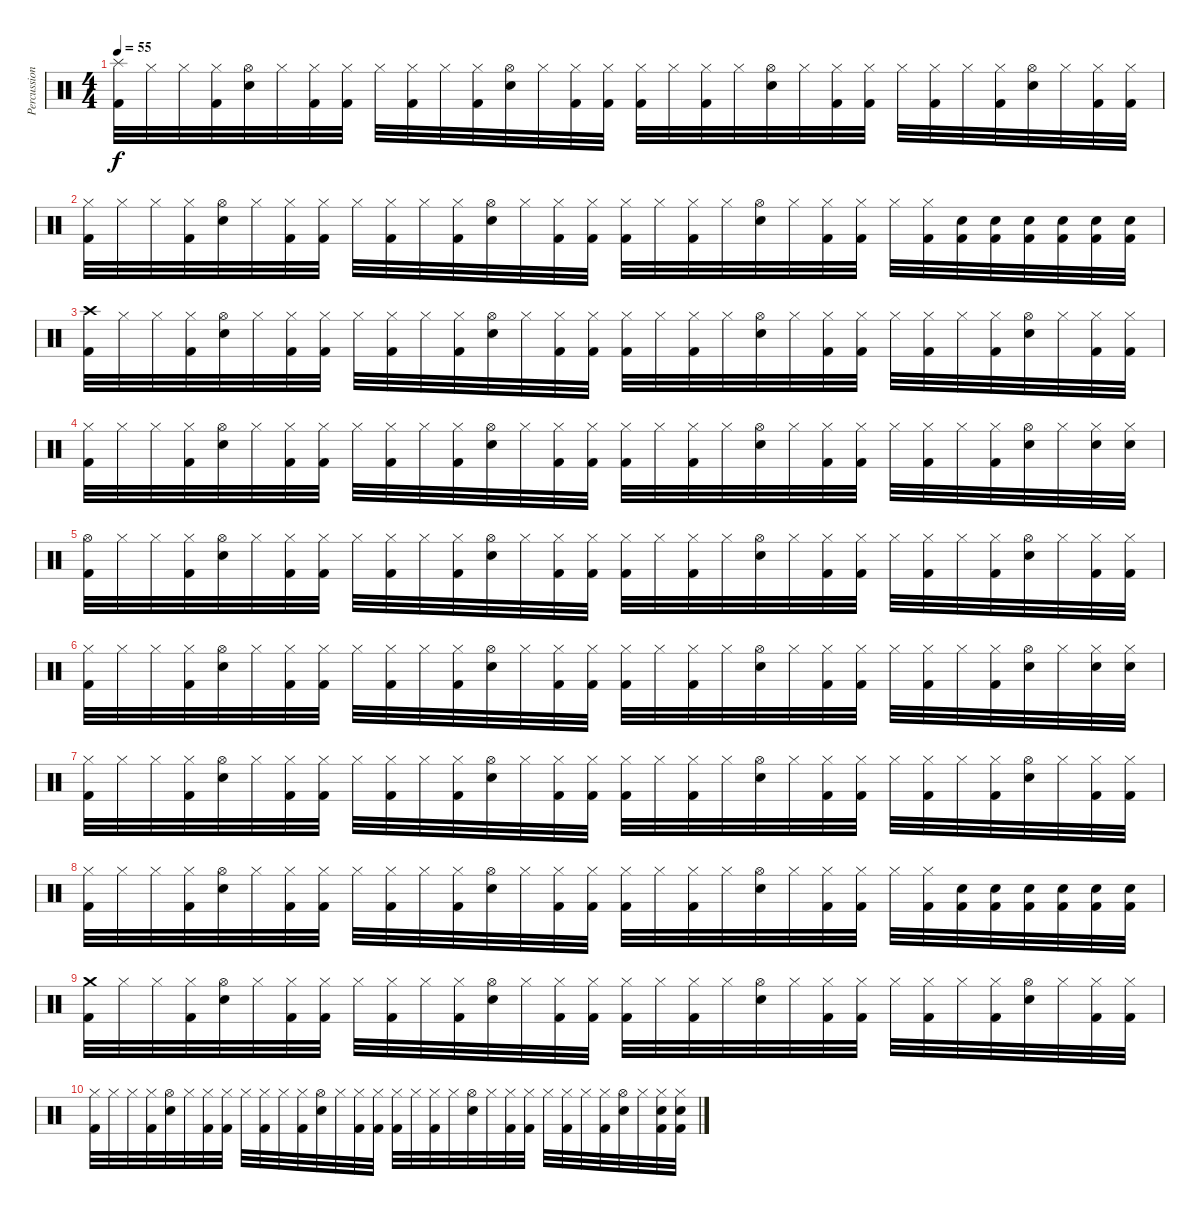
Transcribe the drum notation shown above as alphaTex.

\track ("Percussion" "Percussion") {instrument percussion}
\staff {score}
\articulation defaults
\ts (4 4)
\tempo 55
\clef neutral
\ks c
("Splash (hit)" "Kick (hit) 2").32{dy f} "Hi-Hat (closed)".32 "Hi-Hat (closed)".32 ("Hi-Hat (closed)" "Kick (hit) 2").32 ("Hi-Hat (open)" "Electric Snare (hit)").32 "Hi-Hat (closed)".32 ("Hi-Hat (closed)" "Kick (hit) 2").32 ("Hi-Hat (closed)" "Kick (hit) 2").32 "Hi-Hat (closed)".32 ("Hi-Hat (closed)" "Kick (hit) 2").32 "Hi-Hat (closed)".32 ("Hi-Hat (closed)" "Kick (hit) 2").32 ("Hi-Hat (open)" "Electric Snare (hit)").32 "Hi-Hat (closed)".32 ("Hi-Hat (closed)" "Kick (hit) 2").32 ("Hi-Hat (closed)" "Kick (hit) 2").32 ("Hi-Hat (closed)" "Kick (hit) 2").32 "Hi-Hat (closed)".32 ("Hi-Hat (closed)" "Kick (hit) 2").32 "Hi-Hat (closed)".32 ("Hi-Hat (open)" "Electric Snare (hit)").32 "Hi-Hat (closed)".32 ("Hi-Hat (closed)" "Kick (hit) 2").32 ("Hi-Hat (closed)" "Kick (hit) 2").32 "Hi-Hat (closed)".32 ("Hi-Hat (closed)" "Kick (hit) 2").32 "Hi-Hat (closed)".32 ("Hi-Hat (closed)" "Kick (hit) 2").32 ("Hi-Hat (open)" "Electric Snare (hit)").32 "Hi-Hat (closed)".32 ("Hi-Hat (closed)" "Kick (hit) 2").32 ("Hi-Hat (closed)" "Kick (hit) 2").32 |
("Hi-Hat (closed)" "Kick (hit) 2").32 "Hi-Hat (closed)".32 "Hi-Hat (closed)".32 ("Hi-Hat (closed)" "Kick (hit) 2").32 ("Hi-Hat (open)" "Electric Snare (hit)").32 "Hi-Hat (closed)".32 ("Hi-Hat (closed)" "Kick (hit) 2").32 ("Hi-Hat (closed)" "Kick (hit) 2").32 "Hi-Hat (closed)".32 ("Hi-Hat (closed)" "Kick (hit) 2").32 "Hi-Hat (closed)".32 ("Hi-Hat (closed)" "Kick (hit) 2").32 ("Hi-Hat (open)" "Electric Snare (hit)").32 "Hi-Hat (closed)".32 ("Hi-Hat (closed)" "Kick (hit) 2").32 ("Hi-Hat (closed)" "Kick (hit) 2").32 ("Hi-Hat (closed)" "Kick (hit) 2").32 "Hi-Hat (closed)".32 ("Hi-Hat (closed)" "Kick (hit) 2").32 "Hi-Hat (closed)".32 ("Hi-Hat (open)" "Electric Snare (hit)").32 "Hi-Hat (closed)".32 ("Hi-Hat (closed)" "Kick (hit) 2").32 ("Hi-Hat (closed)" "Kick (hit) 2").32 "Hi-Hat (closed)".32 ("Hi-Hat (closed)" "Kick (hit) 2").32 ("Electric Snare (hit)" "Kick (hit) 2").32 ("Electric Snare (hit)" "Kick (hit) 2").32 ("Electric Snare (hit)" "Kick (hit) 2").32 ("Electric Snare (hit)" "Kick (hit) 2").32 ("Electric Snare (hit)" "Kick (hit) 2").32 ("Electric Snare (hit)" "Kick (hit) 2").32 |
("Crash high (hit)" "Kick (hit) 2").32 "Hi-Hat (closed)".32 "Hi-Hat (closed)".32 ("Hi-Hat (closed)" "Kick (hit) 2").32 ("Hi-Hat (open)" "Electric Snare (hit)").32 "Hi-Hat (closed)".32 ("Hi-Hat (closed)" "Kick (hit) 2").32 ("Hi-Hat (closed)" "Kick (hit) 2").32 "Hi-Hat (closed)".32 ("Hi-Hat (closed)" "Kick (hit) 2").32 "Hi-Hat (closed)".32 ("Hi-Hat (closed)" "Kick (hit) 2").32 ("Hi-Hat (open)" "Electric Snare (hit)").32 "Hi-Hat (closed)".32 ("Hi-Hat (closed)" "Kick (hit) 2").32 ("Hi-Hat (closed)" "Kick (hit) 2").32 ("Hi-Hat (closed)" "Kick (hit) 2").32 "Hi-Hat (closed)".32 ("Hi-Hat (closed)" "Kick (hit) 2").32 "Hi-Hat (closed)".32 ("Hi-Hat (open)" "Electric Snare (hit)").32 "Hi-Hat (closed)".32 ("Hi-Hat (closed)" "Kick (hit) 2").32 ("Hi-Hat (closed)" "Kick (hit) 2").32 "Hi-Hat (closed)".32 ("Hi-Hat (closed)" "Kick (hit) 2").32 "Hi-Hat (closed)".32 ("Hi-Hat (closed)" "Kick (hit) 2").32 ("Hi-Hat (open)" "Electric Snare (hit)").32 "Hi-Hat (closed)".32 ("Hi-Hat (closed)" "Kick (hit) 2").32 ("Hi-Hat (closed)" "Kick (hit) 2").32 |
("Hi-Hat (closed)" "Kick (hit) 2").32 "Hi-Hat (closed)".32 "Hi-Hat (closed)".32 ("Hi-Hat (closed)" "Kick (hit) 2").32 ("Hi-Hat (open)" "Electric Snare (hit)").32 "Hi-Hat (closed)".32 ("Hi-Hat (closed)" "Kick (hit) 2").32 ("Hi-Hat (closed)" "Kick (hit) 2").32 "Hi-Hat (closed)".32 ("Hi-Hat (closed)" "Kick (hit) 2").32 "Hi-Hat (closed)".32 ("Hi-Hat (closed)" "Kick (hit) 2").32 ("Hi-Hat (open)" "Electric Snare (hit)").32 "Hi-Hat (closed)".32 ("Hi-Hat (closed)" "Kick (hit) 2").32 ("Hi-Hat (closed)" "Kick (hit) 2").32 ("Hi-Hat (closed)" "Kick (hit) 2").32 "Hi-Hat (closed)".32 ("Hi-Hat (closed)" "Kick (hit) 2").32 "Hi-Hat (closed)".32 ("Hi-Hat (open)" "Electric Snare (hit)").32 "Hi-Hat (closed)".32 ("Hi-Hat (closed)" "Kick (hit) 2").32 ("Hi-Hat (closed)" "Kick (hit) 2").32 "Hi-Hat (closed)".32 ("Hi-Hat (closed)" "Kick (hit) 2").32 "Hi-Hat (closed)".32 ("Hi-Hat (closed)" "Kick (hit) 2").32 ("Hi-Hat (open)" "Electric Snare (hit)").32 "Hi-Hat (closed)".32 ("Hi-Hat (closed)" "Electric Snare (hit)").32 ("Hi-Hat (closed)" "Electric Snare (hit)").32 |
("Hi-Hat (open)" "Kick (hit) 2").32 "Hi-Hat (closed)".32 "Hi-Hat (closed)".32 ("Hi-Hat (closed)" "Kick (hit) 2").32 ("Hi-Hat (open)" "Electric Snare (hit)").32 "Hi-Hat (closed)".32 ("Hi-Hat (closed)" "Kick (hit) 2").32 ("Hi-Hat (closed)" "Kick (hit) 2").32 "Hi-Hat (closed)".32 ("Hi-Hat (closed)" "Kick (hit) 2").32 "Hi-Hat (closed)".32 ("Hi-Hat (closed)" "Kick (hit) 2").32 ("Hi-Hat (open)" "Electric Snare (hit)").32 "Hi-Hat (closed)".32 ("Hi-Hat (closed)" "Kick (hit) 2").32 ("Hi-Hat (closed)" "Kick (hit) 2").32 ("Hi-Hat (closed)" "Kick (hit) 2").32 "Hi-Hat (closed)".32 ("Hi-Hat (closed)" "Kick (hit) 2").32 "Hi-Hat (closed)".32 ("Hi-Hat (open)" "Electric Snare (hit)").32 "Hi-Hat (closed)".32 ("Hi-Hat (closed)" "Kick (hit) 2").32 ("Hi-Hat (closed)" "Kick (hit) 2").32 "Hi-Hat (closed)".32 ("Hi-Hat (closed)" "Kick (hit) 2").32 "Hi-Hat (closed)".32 ("Hi-Hat (closed)" "Kick (hit) 2").32 ("Hi-Hat (open)" "Electric Snare (hit)").32 "Hi-Hat (closed)".32 ("Hi-Hat (closed)" "Kick (hit) 2").32 ("Hi-Hat (closed)" "Kick (hit) 2").32 |
("Hi-Hat (closed)" "Kick (hit) 2").32 "Hi-Hat (closed)".32 "Hi-Hat (closed)".32 ("Hi-Hat (closed)" "Kick (hit) 2").32 ("Hi-Hat (open)" "Electric Snare (hit)").32 "Hi-Hat (closed)".32 ("Hi-Hat (closed)" "Kick (hit) 2").32 ("Hi-Hat (closed)" "Kick (hit) 2").32 "Hi-Hat (closed)".32 ("Hi-Hat (closed)" "Kick (hit) 2").32 "Hi-Hat (closed)".32 ("Hi-Hat (closed)" "Kick (hit) 2").32 ("Hi-Hat (open)" "Electric Snare (hit)").32 "Hi-Hat (closed)".32 ("Hi-Hat (closed)" "Kick (hit) 2").32 ("Hi-Hat (closed)" "Kick (hit) 2").32 ("Hi-Hat (closed)" "Kick (hit) 2").32 "Hi-Hat (closed)".32 ("Hi-Hat (closed)" "Kick (hit) 2").32 "Hi-Hat (closed)".32 ("Hi-Hat (open)" "Electric Snare (hit)").32 "Hi-Hat (closed)".32 ("Hi-Hat (closed)" "Kick (hit) 2").32 ("Hi-Hat (closed)" "Kick (hit) 2").32 "Hi-Hat (closed)".32 ("Hi-Hat (closed)" "Kick (hit) 2").32 "Hi-Hat (closed)".32 ("Hi-Hat (closed)" "Kick (hit) 2").32 ("Hi-Hat (open)" "Electric Snare (hit)").32 "Hi-Hat (closed)".32 ("Hi-Hat (closed)" "Electric Snare (hit)").32 ("Hi-Hat (closed)" "Electric Snare (hit)").32 |
("Hi-Hat (closed)" "Kick (hit) 2").32 "Hi-Hat (closed)".32 "Hi-Hat (closed)".32 ("Hi-Hat (closed)" "Kick (hit) 2").32 ("Hi-Hat (open)" "Electric Snare (hit)").32 "Hi-Hat (closed)".32 ("Hi-Hat (closed)" "Kick (hit) 2").32 ("Hi-Hat (closed)" "Kick (hit) 2").32 "Hi-Hat (closed)".32 ("Hi-Hat (closed)" "Kick (hit) 2").32 "Hi-Hat (closed)".32 ("Hi-Hat (closed)" "Kick (hit) 2").32 ("Hi-Hat (open)" "Electric Snare (hit)").32 "Hi-Hat (closed)".32 ("Hi-Hat (closed)" "Kick (hit) 2").32 ("Hi-Hat (closed)" "Kick (hit) 2").32 ("Hi-Hat (closed)" "Kick (hit) 2").32 "Hi-Hat (closed)".32 ("Hi-Hat (closed)" "Kick (hit) 2").32 "Hi-Hat (closed)".32 ("Hi-Hat (open)" "Electric Snare (hit)").32 "Hi-Hat (closed)".32 ("Hi-Hat (closed)" "Kick (hit) 2").32 ("Hi-Hat (closed)" "Kick (hit) 2").32 "Hi-Hat (closed)".32 ("Hi-Hat (closed)" "Kick (hit) 2").32 "Hi-Hat (closed)".32 ("Hi-Hat (closed)" "Kick (hit) 2").32 ("Hi-Hat (open)" "Electric Snare (hit)").32 "Hi-Hat (closed)".32 ("Hi-Hat (closed)" "Kick (hit) 2").32 ("Hi-Hat (closed)" "Kick (hit) 2").32 |
("Hi-Hat (closed)" "Kick (hit) 2").32 "Hi-Hat (closed)".32 "Hi-Hat (closed)".32 ("Hi-Hat (closed)" "Kick (hit) 2").32 ("Hi-Hat (open)" "Electric Snare (hit)").32 "Hi-Hat (closed)".32 ("Hi-Hat (closed)" "Kick (hit) 2").32 ("Hi-Hat (closed)" "Kick (hit) 2").32 "Hi-Hat (closed)".32 ("Hi-Hat (closed)" "Kick (hit) 2").32 "Hi-Hat (closed)".32 ("Hi-Hat (closed)" "Kick (hit) 2").32 ("Hi-Hat (open)" "Electric Snare (hit)").32 "Hi-Hat (closed)".32 ("Hi-Hat (closed)" "Kick (hit) 2").32 ("Hi-Hat (closed)" "Kick (hit) 2").32 ("Hi-Hat (closed)" "Kick (hit) 2").32 "Hi-Hat (closed)".32 ("Hi-Hat (closed)" "Kick (hit) 2").32 "Hi-Hat (closed)".32 ("Hi-Hat (open)" "Electric Snare (hit)").32 "Hi-Hat (closed)".32 ("Hi-Hat (closed)" "Kick (hit) 2").32 ("Hi-Hat (closed)" "Kick (hit) 2").32 "Hi-Hat (closed)".32 ("Hi-Hat (closed)" "Kick (hit) 2").32 ("Electric Snare (hit)" "Kick (hit) 2").32 ("Electric Snare (hit)" "Kick (hit) 2").32 ("Electric Snare (hit)" "Kick (hit) 2").32 ("Electric Snare (hit)" "Kick (hit) 2").32 ("Electric Snare (hit)" "Kick (hit) 2").32 ("Electric Snare (hit)" "Kick (hit) 2").32 |
("Crash medium (hit)" "Kick (hit) 2").32{volume 0} "Hi-Hat (closed)".32 "Hi-Hat (closed)".32 ("Hi-Hat (closed)" "Kick (hit) 2").32 ("Hi-Hat (open)" "Electric Snare (hit)").32 "Hi-Hat (closed)".32 ("Hi-Hat (closed)" "Kick (hit) 2").32 ("Hi-Hat (closed)" "Kick (hit) 2").32 "Hi-Hat (closed)".32 ("Hi-Hat (closed)" "Kick (hit) 2").32 "Hi-Hat (closed)".32 ("Hi-Hat (closed)" "Kick (hit) 2").32 ("Hi-Hat (open)" "Electric Snare (hit)").32 "Hi-Hat (closed)".32 ("Hi-Hat (closed)" "Kick (hit) 2").32 ("Hi-Hat (closed)" "Kick (hit) 2").32 ("Hi-Hat (closed)" "Kick (hit) 2").32 "Hi-Hat (closed)".32 ("Hi-Hat (closed)" "Kick (hit) 2").32 "Hi-Hat (closed)".32 ("Hi-Hat (open)" "Electric Snare (hit)").32 "Hi-Hat (closed)".32 ("Hi-Hat (closed)" "Kick (hit) 2").32 ("Hi-Hat (closed)" "Kick (hit) 2").32 "Hi-Hat (closed)".32 ("Hi-Hat (closed)" "Kick (hit) 2").32 "Hi-Hat (closed)".32 ("Hi-Hat (closed)" "Kick (hit) 2").32 ("Hi-Hat (open)" "Electric Snare (hit)").32 "Hi-Hat (closed)".32 ("Hi-Hat (closed)" "Kick (hit) 2").32 ("Hi-Hat (closed)" "Kick (hit) 2").32 |
("Hi-Hat (closed)" "Kick (hit) 2").32 "Hi-Hat (closed)".32 "Hi-Hat (closed)".32 ("Hi-Hat (closed)" "Kick (hit) 2").32 ("Hi-Hat (open)" "Electric Snare (hit)").32 "Hi-Hat (closed)".32 ("Hi-Hat (closed)" "Kick (hit) 2").32 ("Hi-Hat (closed)" "Kick (hit) 2").32 "Hi-Hat (closed)".32 ("Hi-Hat (closed)" "Kick (hit) 2").32 "Hi-Hat (closed)".32 ("Hi-Hat (closed)" "Kick (hit) 2").32 ("Hi-Hat (open)" "Electric Snare (hit)").32 "Hi-Hat (closed)".32 ("Hi-Hat (closed)" "Kick (hit) 2").32 ("Hi-Hat (closed)" "Kick (hit) 2").32 ("Hi-Hat (closed)" "Kick (hit) 2").32 "Hi-Hat (closed)".32 ("Hi-Hat (closed)" "Kick (hit) 2").32 "Hi-Hat (closed)".32 ("Hi-Hat (open)" "Electric Snare (hit)").32 "Hi-Hat (closed)".32 ("Hi-Hat (closed)" "Kick (hit) 2").32 ("Hi-Hat (closed)" "Kick (hit) 2").32 "Hi-Hat (closed)".32 ("Hi-Hat (closed)" "Kick (hit) 2").32 "Hi-Hat (closed)".32 ("Hi-Hat (closed)" "Kick (hit) 2").32 ("Hi-Hat (open)" "Electric Snare (hit)").32 "Hi-Hat (closed)".32 ("Hi-Hat (closed)" "Electric Snare (hit)" "Kick (hit) 2").32 ("Hi-Hat (closed)" "Electric Snare (hit)" "Kick (hit) 2").32
